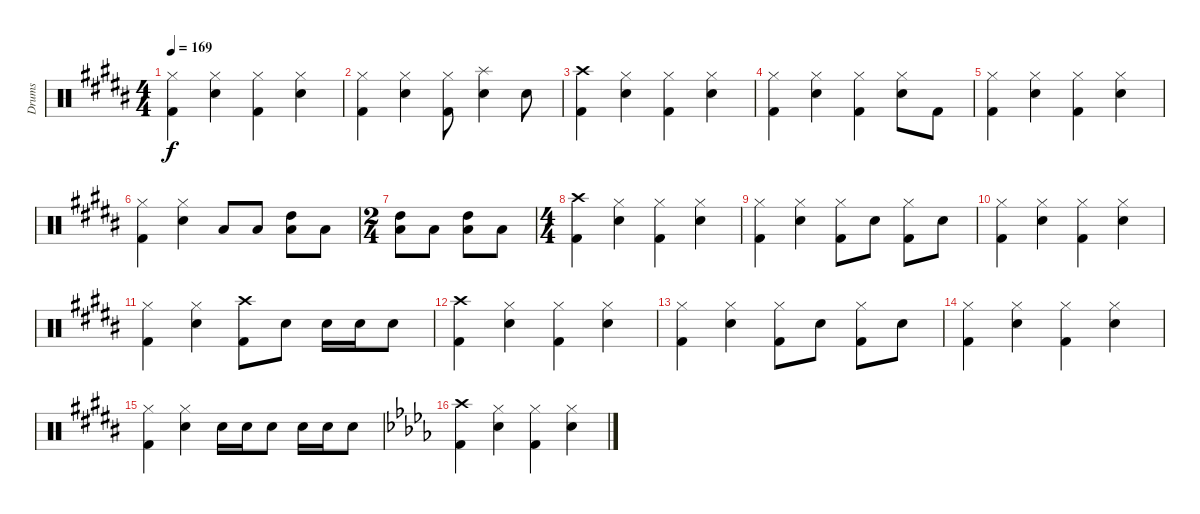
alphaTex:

\track ("Drums" "Drums") {instrument percussion}
\staff {score}
\articulation defaults
\ts (4 4)
\tempo 169
\clef neutral
\ks b
("Hi-Hat (closed)" "Kick (hit) 2").4{dy f} ("Hi-Hat (closed)" "Snare (hit) 2").4 ("Hi-Hat (closed)" "Kick (hit) 2").4 ("Hi-Hat (closed)" "Snare (hit) 2").4 |
("Hi-Hat (closed)" "Kick (hit) 2").4 ("Hi-Hat (closed)" "Snare (hit) 2").4 ("Hi-Hat (closed)" "Kick (hit) 2").8 ("Splash (hit)" "Snare (hit) 2").4 "Snare (hit) 2".8 |
("Crash high (hit)" "Kick (hit) 2").4 ("Hi-Hat (closed)" "Snare (hit) 2").4 ("Hi-Hat (closed)" "Kick (hit) 2").4 ("Hi-Hat (closed)" "Snare (hit) 2").4 |
("Hi-Hat (closed)" "Kick (hit) 2").4 ("Hi-Hat (closed)" "Snare (hit) 2").4 ("Hi-Hat (closed)" "Kick (hit) 2").4 ("Hi-Hat (closed)" "Snare (hit) 2").8 "Kick (hit) 2".8 |
("Hi-Hat (closed)" "Kick (hit) 2").4 ("Hi-Hat (closed)" "Snare (hit) 2").4 ("Hi-Hat (closed)" "Kick (hit) 2").4 ("Hi-Hat (closed)" "Snare (hit) 2").4 |
("Hi-Hat (closed)" "Kick (hit) 2").4 ("Hi-Hat (closed)" "Snare (hit) 2").4 "Low Tom (hit)".8 "Low Tom (hit)".8 ("High Tom (hit)" "Low Tom (hit)").8 "Low Tom (hit)".8 |
\ts (2 4)
("High Tom (hit)" "Low Tom (hit)").8 "Low Tom (hit)".8 ("High Tom (hit)" "Low Tom (hit)").8 "Low Tom (hit)".8 |
\ts (4 4)
("Crash high (hit)" "Kick (hit) 2").4 ("Hi-Hat (closed)" "Snare (hit) 2").4 ("Hi-Hat (closed)" "Kick (hit) 2").4 ("Hi-Hat (closed)" "Snare (hit) 2").4 |
("Hi-Hat (closed)" "Kick (hit) 2").4 ("Hi-Hat (closed)" "Snare (hit) 2").4 ("Hi-Hat (closed)" "Kick (hit) 2").8 "Snare (hit) 2".8 ("Hi-Hat (closed)" "Kick (hit) 2").8 "Snare (hit) 2".8 |
("Hi-Hat (closed)" "Kick (hit) 2").4 ("Hi-Hat (closed)" "Snare (hit) 2").4 ("Hi-Hat (closed)" "Kick (hit) 2").4 ("Hi-Hat (closed)" "Snare (hit) 2").4 |
("Hi-Hat (closed)" "Kick (hit) 2").4 ("Hi-Hat (closed)" "Snare (hit) 2").4 ("Crash high (hit)" "Kick (hit) 2").8 "Snare (hit) 2".8 "Snare (hit) 2".16 "Snare (hit) 2".16 "Snare (hit) 2".8 |
("Crash high (hit)" "Kick (hit) 2").4 ("Hi-Hat (closed)" "Snare (hit) 2").4 ("Hi-Hat (closed)" "Kick (hit) 2").4 ("Hi-Hat (closed)" "Snare (hit) 2").4 |
("Hi-Hat (closed)" "Kick (hit) 2").4 ("Hi-Hat (closed)" "Snare (hit) 2").4 ("Hi-Hat (closed)" "Kick (hit) 2").8 "Snare (hit) 2".8 ("Hi-Hat (closed)" "Kick (hit) 2").8 "Snare (hit) 2".8 |
("Hi-Hat (closed)" "Kick (hit) 2").4 ("Hi-Hat (closed)" "Snare (hit) 2").4 ("Hi-Hat (closed)" "Kick (hit) 2").4 ("Hi-Hat (closed)" "Snare (hit) 2").4 |
("Hi-Hat (closed)" "Kick (hit) 2").4 ("Hi-Hat (closed)" "Snare (hit) 2").4 "Snare (hit) 2".16 "Snare (hit) 2".16 "Snare (hit) 2".8 "Snare (hit) 2".16 "Snare (hit) 2".16 "Snare (hit) 2".8 |
\ks db
("Crash high (hit)" "Kick (hit) 2").4 ("Hi-Hat (closed)" "Snare (hit) 2").4 ("Hi-Hat (closed)" "Kick (hit) 2").4 ("Hi-Hat (closed)" "Snare (hit) 2").4
